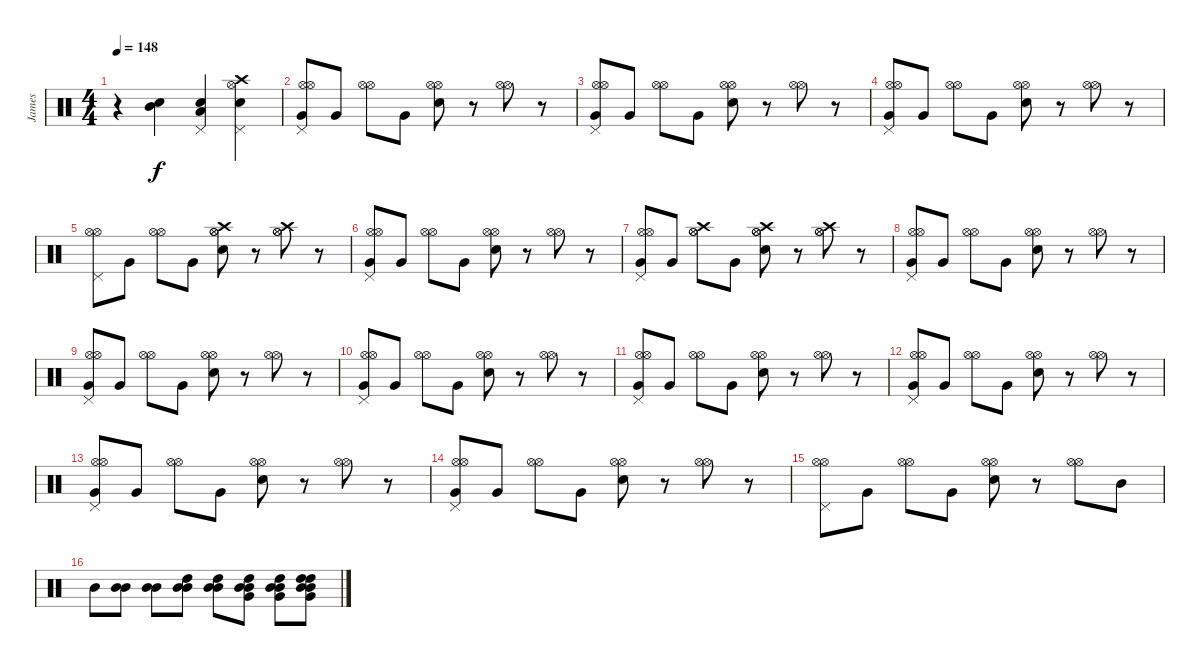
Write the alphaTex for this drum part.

\track ("James" "James") {instrument percussion}
\staff {score}
\articulation defaults
\ts (4 4)
\tempo 148
\clef neutral
\ks c
r.4{dy f} ("Mid Tom (hit)" "Electric Snare (hit)").4 ("Low Floor Tom (hit)" "Pedal Hi-Hat (hit)" "Electric Snare (hit)").4 ("Crash high (hit)" "Electric Snare (hit)" "Pedal Hi-Hat (hit)" "Hi-Hat (open)").4 |
("Hi-Hat (open)" "Pedal Hi-Hat (hit)" "Very Low Tom (hit)" "Hi-Hat (open)").8 "Very Low Tom (hit)".8 ("Hi-Hat (open)" "Hi-Hat (open)").8 "Very Low Tom (hit)".8 ("Hi-Hat (open)" "Electric Snare (hit)" "Hi-Hat (open)").8 r.8 ("Hi-Hat (open)" "Hi-Hat (open)").8 r.8 |
("Hi-Hat (open)" "Pedal Hi-Hat (hit)" "Very Low Tom (hit)" "Hi-Hat (open)").8 "Very Low Tom (hit)".8 ("Hi-Hat (open)" "Hi-Hat (open)").8 "Very Low Tom (hit)".8 ("Hi-Hat (open)" "Electric Snare (hit)" "Hi-Hat (open)").8 r.8 ("Hi-Hat (open)" "Hi-Hat (open)").8 r.8 |
("Hi-Hat (open)" "Pedal Hi-Hat (hit)" "Very Low Tom (hit)" "Hi-Hat (open)").8 "Very Low Tom (hit)".8 ("Hi-Hat (open)" "Hi-Hat (open)").8 "Very Low Tom (hit)".8 ("Hi-Hat (open)" "Electric Snare (hit)" "Hi-Hat (open)").8 r.8 ("Hi-Hat (open)" "Hi-Hat (open)").8 r.8 |
("Hi-Hat (open)" "Pedal Hi-Hat (hit)" "Hi-Hat (open)").8 "Very Low Tom (hit)".8 ("Hi-Hat (open)" "Hi-Hat (open)").8 "Very Low Tom (hit)".8 ("Hi-Hat (open)" "Crash high (hit)" "Electric Snare (hit)" "Hi-Hat (open)").8 r.8 ("Hi-Hat (open)" "Crash high (hit)" "Hi-Hat (open)").8 r.8 |
("Hi-Hat (open)" "Pedal Hi-Hat (hit)" "Very Low Tom (hit)" "Hi-Hat (open)").8 "Very Low Tom (hit)".8 ("Hi-Hat (open)" "Hi-Hat (open)").8 "Very Low Tom (hit)".8 ("Hi-Hat (open)" "Electric Snare (hit)" "Hi-Hat (open)").8 r.8 ("Hi-Hat (open)" "Hi-Hat (open)").8 r.8 |
("Hi-Hat (open)" "Pedal Hi-Hat (hit)" "Very Low Tom (hit)" "Hi-Hat (open)").8 "Very Low Tom (hit)".8 ("Hi-Hat (open)" "Crash high (hit)" "Hi-Hat (open)").8 "Very Low Tom (hit)".8 ("Hi-Hat (open)" "Crash high (hit)" "Electric Snare (hit)" "Hi-Hat (open)").8 r.8 ("Hi-Hat (open)" "Crash high (hit)" "Hi-Hat (open)").8 r.8 |
("Hi-Hat (open)" "Pedal Hi-Hat (hit)" "Very Low Tom (hit)" "Hi-Hat (open)").8 "Very Low Tom (hit)".8 ("Hi-Hat (open)" "Hi-Hat (open)").8 "Very Low Tom (hit)".8 ("Hi-Hat (open)" "Electric Snare (hit)" "Hi-Hat (open)").8 r.8 ("Hi-Hat (open)" "Hi-Hat (open)").8 r.8 |
("Hi-Hat (open)" "Pedal Hi-Hat (hit)" "Very Low Tom (hit)" "Hi-Hat (open)").8 "Very Low Tom (hit)".8 ("Hi-Hat (open)" "Hi-Hat (open)").8 "Very Low Tom (hit)".8 ("Hi-Hat (open)" "Electric Snare (hit)" "Hi-Hat (open)").8 r.8 ("Hi-Hat (open)" "Hi-Hat (open)").8 r.8 |
("Hi-Hat (open)" "Pedal Hi-Hat (hit)" "Very Low Tom (hit)" "Hi-Hat (open)").8 "Very Low Tom (hit)".8 ("Hi-Hat (open)" "Hi-Hat (open)").8 "Very Low Tom (hit)".8 ("Hi-Hat (open)" "Electric Snare (hit)" "Hi-Hat (open)").8 r.8 ("Hi-Hat (open)" "Hi-Hat (open)").8 r.8 |
("Hi-Hat (open)" "Pedal Hi-Hat (hit)" "Very Low Tom (hit)" "Hi-Hat (open)").8 "Very Low Tom (hit)".8 ("Hi-Hat (open)" "Hi-Hat (open)").8 "Very Low Tom (hit)".8 ("Hi-Hat (open)" "Electric Snare (hit)" "Hi-Hat (open)").8 r.8 ("Hi-Hat (open)" "Hi-Hat (open)").8 r.8 |
("Hi-Hat (open)" "Pedal Hi-Hat (hit)" "Very Low Tom (hit)" "Hi-Hat (open)").8 "Very Low Tom (hit)".8 ("Hi-Hat (open)" "Hi-Hat (open)").8 "Very Low Tom (hit)".8 ("Hi-Hat (open)" "Electric Snare (hit)" "Hi-Hat (open)").8 r.8 ("Hi-Hat (open)" "Hi-Hat (open)").8 r.8 |
("Hi-Hat (open)" "Pedal Hi-Hat (hit)" "Very Low Tom (hit)" "Hi-Hat (open)").8 "Very Low Tom (hit)".8 ("Hi-Hat (open)" "Hi-Hat (open)").8 "Very Low Tom (hit)".8 ("Hi-Hat (open)" "Electric Snare (hit)" "Hi-Hat (open)").8 r.8 ("Hi-Hat (open)" "Hi-Hat (open)").8 r.8 |
("Hi-Hat (open)" "Pedal Hi-Hat (hit)" "Very Low Tom (hit)" "Hi-Hat (open)").8 "Very Low Tom (hit)".8 ("Hi-Hat (open)" "Hi-Hat (open)").8 "Very Low Tom (hit)".8 ("Hi-Hat (open)" "Electric Snare (hit)" "Hi-Hat (open)").8 r.8 ("Hi-Hat (open)" "Hi-Hat (open)").8 r.8 |
("Hi-Hat (open)" "Pedal Hi-Hat (hit)" "Hi-Hat (open)").8 "Very Low Tom (hit)".8 ("Hi-Hat (open)" "Hi-Hat (open)").8 "Very Low Tom (hit)".8 ("Hi-Hat (open)" "Electric Snare (hit)" "Hi-Hat (open)").8 r.8 ("Hi-Hat (open)" "Hi-Hat (open)").8 "Mid Tom (hit)".8 |
"Mid Tom (hit)".8 ("Mid Tom (hit)" "Mid Tom (hit)").8 ("Mid Tom (hit)" "Mid Tom (hit)").8 ("Mid Tom (hit)" "Mid Tom (hit)" "High Tom (hit)").8 ("Mid Tom (hit)" "Mid Tom (hit)" "High Tom (hit)").8 ("Mid Tom (hit)" "Mid Tom (hit)" "High Tom (hit)" "Very Low Tom (hit)").8 ("Mid Tom (hit)" "Mid Tom (hit)" "High Tom (hit)" "Very Low Tom (hit)").8 ("Mid Tom (hit)" "Mid Tom (hit)" "High Tom (hit)" "Very Low Tom (hit)" "High Tom (hit)").8
